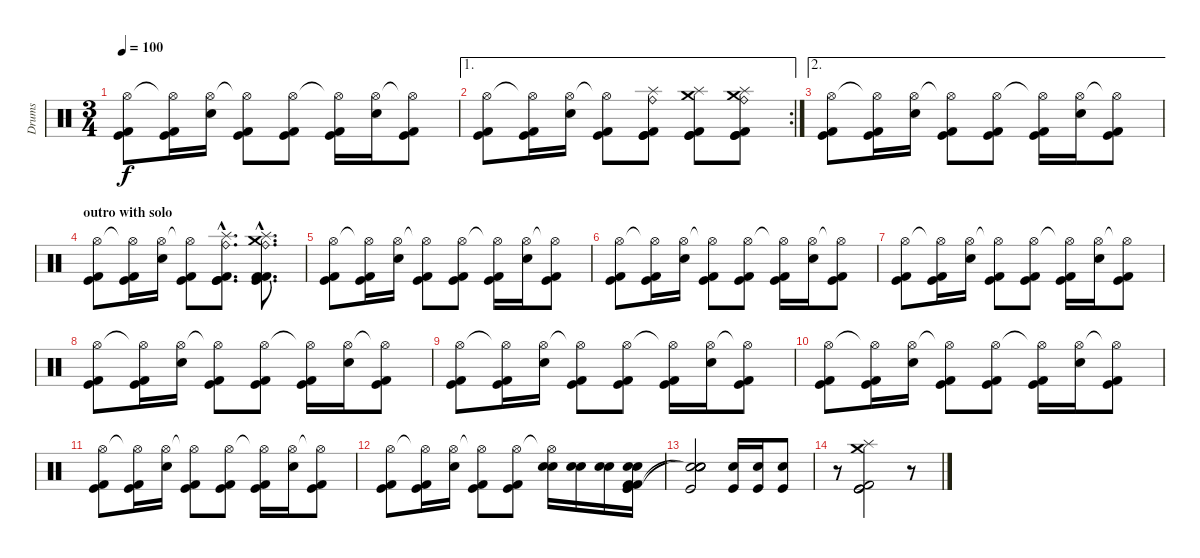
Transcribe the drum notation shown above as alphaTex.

\track ("Drums" "Drums") {instrument percussion}
\staff {score}
\articulation defaults
\ts (3 4)
\tempo 100
\clef neutral
\ks c
("Hi-Hat (open)" "Kick (hit)" "Kick (hit) 2").8{dy f} ("Hi-Hat (open)"{t} "Kick (hit)" "Kick (hit) 2").16 ("Hi-Hat (open)" "Snare (hit) 2").16 ("Hi-Hat (open)"{t} "Kick (hit)" "Kick (hit) 2").8 ("Hi-Hat (open)" "Kick (hit)" "Kick (hit) 2").8 ("Hi-Hat (open)"{t} "Kick (hit)" "Kick (hit) 2").16 ("Hi-Hat (open)" "Snare (hit) 2").16 ("Hi-Hat (open)"{t} "Kick (hit)" "Kick (hit) 2").8 |
\ae 1
\rc 2
("Hi-Hat (open)" "Kick (hit)" "Kick (hit) 2").8 ("Hi-Hat (open)"{t} "Kick (hit)" "Kick (hit) 2").16 ("Hi-Hat (open)" "Snare (hit) 2").16 ("Hi-Hat (open)"{t} "Kick (hit)" "Kick (hit) 2").8 ("Splash (hit)" "Ride (bell)" "Kick (hit)" "Kick (hit)" "Kick (hit) 2").8 ("Crash medium (hit)" "Splash (hit)" "Kick (hit)" "Kick (hit)" "Kick (hit) 2").8 ("Crash medium (hit)" "Ride (bell)" "Splash (hit)" "Kick (hit)" "Kick (hit)" "Kick (hit) 2").8 |
\ae 2
("Hi-Hat (open)" "Kick (hit)" "Kick (hit) 2").8 ("Hi-Hat (open)"{t} "Kick (hit)" "Kick (hit) 2").16 ("Hi-Hat (open)" "Snare (hit) 2").16 ("Hi-Hat (open)"{t} "Kick (hit)" "Kick (hit) 2").8 ("Hi-Hat (open)" "Kick (hit)" "Kick (hit) 2").8 ("Hi-Hat (open)"{t} "Kick (hit)" "Kick (hit) 2").16 ("Hi-Hat (open)" "Snare (hit) 2").16 ("Hi-Hat (open)"{t} "Kick (hit)" "Kick (hit) 2").8 |
\section ("" "outro with solo")
("Hi-Hat (open)" "Kick (hit)" "Kick (hit) 2").8 ("Hi-Hat (open)"{t} "Kick (hit)" "Kick (hit) 2").16 ("Hi-Hat (open)" "Snare (hit) 2").16 ("Hi-Hat (open)"{t} "Kick (hit)" "Kick (hit) 2").8 ("Splash (hit)"{hac} "Ride (bell)"{hac} "Kick (hit)"{hac} "Kick (hit) 2"{hac} "Kick (hit)"{hac}).8{d} ("Ride (bell)"{hac} "Crash medium (hit)"{hac} "Splash (hit)"{hac} "Kick (hit)"{hac} "Kick (hit) 2"{hac} "Kick (hit) 2"{hac}).8{d} |
("Hi-Hat (open)" "Kick (hit)" "Kick (hit) 2").8 ("Hi-Hat (open)"{t} "Kick (hit)" "Kick (hit) 2").16 ("Hi-Hat (open)" "Snare (hit) 2").16 ("Hi-Hat (open)"{t} "Kick (hit)" "Kick (hit) 2").8 ("Hi-Hat (open)" "Kick (hit)" "Kick (hit) 2").8 ("Hi-Hat (open)"{t} "Kick (hit)" "Kick (hit) 2").16 ("Hi-Hat (open)" "Snare (hit) 2").16 ("Hi-Hat (open)"{t} "Kick (hit)" "Kick (hit) 2").8 |
("Hi-Hat (open)" "Kick (hit)" "Kick (hit) 2").8 ("Hi-Hat (open)"{t} "Kick (hit)" "Kick (hit) 2").16 ("Hi-Hat (open)" "Snare (hit) 2").16 ("Hi-Hat (open)"{t} "Kick (hit)" "Kick (hit) 2").8 ("Hi-Hat (open)" "Kick (hit)" "Kick (hit) 2").8 ("Hi-Hat (open)"{t} "Kick (hit)" "Kick (hit) 2").16 ("Hi-Hat (open)" "Snare (hit) 2").16 ("Hi-Hat (open)"{t} "Kick (hit)" "Kick (hit) 2").8 |
("Hi-Hat (open)" "Kick (hit)" "Kick (hit) 2").8 ("Hi-Hat (open)"{t} "Kick (hit)" "Kick (hit) 2").16 ("Hi-Hat (open)" "Snare (hit) 2").16 ("Hi-Hat (open)"{t} "Kick (hit)" "Kick (hit) 2").8 ("Hi-Hat (open)" "Kick (hit)" "Kick (hit) 2").8 ("Hi-Hat (open)"{t} "Kick (hit)" "Kick (hit) 2").16 ("Hi-Hat (open)" "Snare (hit) 2").16 ("Hi-Hat (open)"{t} "Kick (hit)" "Kick (hit) 2").8 |
("Hi-Hat (open)" "Kick (hit)" "Kick (hit) 2").8 ("Hi-Hat (open)"{t} "Kick (hit)" "Kick (hit) 2").16 ("Hi-Hat (open)" "Snare (hit) 2").16 ("Hi-Hat (open)"{t} "Kick (hit)" "Kick (hit) 2").8 ("Hi-Hat (open)" "Kick (hit)" "Kick (hit) 2").8 ("Hi-Hat (open)"{t} "Kick (hit)" "Kick (hit) 2").16 ("Hi-Hat (open)" "Snare (hit) 2").16 ("Hi-Hat (open)"{t} "Kick (hit)" "Kick (hit) 2").8 |
("Hi-Hat (open)" "Kick (hit)" "Kick (hit) 2").8 ("Hi-Hat (open)"{t} "Kick (hit)" "Kick (hit) 2").16 ("Hi-Hat (open)" "Snare (hit) 2").16 ("Hi-Hat (open)"{t} "Kick (hit)" "Kick (hit) 2").8 ("Hi-Hat (open)" "Kick (hit)" "Kick (hit) 2").8 ("Hi-Hat (open)"{t} "Kick (hit)" "Kick (hit) 2").16 ("Hi-Hat (open)" "Snare (hit) 2").16 ("Hi-Hat (open)"{t} "Kick (hit)" "Kick (hit) 2").8 |
("Hi-Hat (open)" "Kick (hit)" "Kick (hit) 2").8 ("Hi-Hat (open)"{t} "Kick (hit)" "Kick (hit) 2").16 ("Hi-Hat (open)" "Snare (hit) 2").16 ("Hi-Hat (open)"{t} "Kick (hit)" "Kick (hit) 2").8 ("Hi-Hat (open)" "Kick (hit)" "Kick (hit) 2").8 ("Hi-Hat (open)"{t} "Kick (hit)" "Kick (hit) 2").16 ("Hi-Hat (open)" "Snare (hit) 2").16 ("Hi-Hat (open)"{t} "Kick (hit)" "Kick (hit) 2").8 |
("Hi-Hat (open)" "Kick (hit)" "Kick (hit) 2").8 ("Hi-Hat (open)"{t} "Kick (hit)" "Kick (hit) 2").16 ("Hi-Hat (open)" "Snare (hit) 2").16 ("Hi-Hat (open)"{t} "Kick (hit)" "Kick (hit) 2").8 ("Hi-Hat (open)" "Kick (hit)" "Kick (hit) 2").8 ("Hi-Hat (open)"{t} "Kick (hit)" "Kick (hit) 2").16 ("Hi-Hat (open)" "Snare (hit) 2").16 ("Hi-Hat (open)"{t} "Kick (hit)" "Kick (hit) 2").8 |
("Hi-Hat (open)" "Kick (hit)" "Kick (hit) 2").8 ("Hi-Hat (open)"{t} "Kick (hit)" "Kick (hit) 2").16 ("Hi-Hat (open)" "Snare (hit) 2").16 ("Hi-Hat (open)"{t} "Kick (hit)" "Kick (hit) 2").8 ("Hi-Hat (open)" "Kick (hit)" "Kick (hit) 2").8 ("Hi-Hat (open)"{t} "Electric Snare (hit)" "Snare (hit) 2").16 ("Snare (hit) 2" "Electric Snare (hit)").16 ("Snare (hit) 2" "Electric Snare (hit)").16 ("Kick (hit)" "Kick (hit) 2" "Kick (hit) 2" "Snare (hit) 2" "Electric Snare (hit)" "Kick (hit)").16 |
("Snare (hit)"{t} "Snare (hit)"{t} "Snare (hit) 2" "Electric Snare (hit)" "Kick (hit)").2 ("Snare (hit) 2" "Kick (hit)").16 ("Snare (hit) 2" "Kick (hit)").16 ("Snare (hit) 2" "Kick (hit)").8 |
r.8 ("Crash medium (hit)" "Splash (hit)" "Kick (hit)" "Kick (hit) 2" "Kick (hit)" "Kick (hit)").2 r.8
